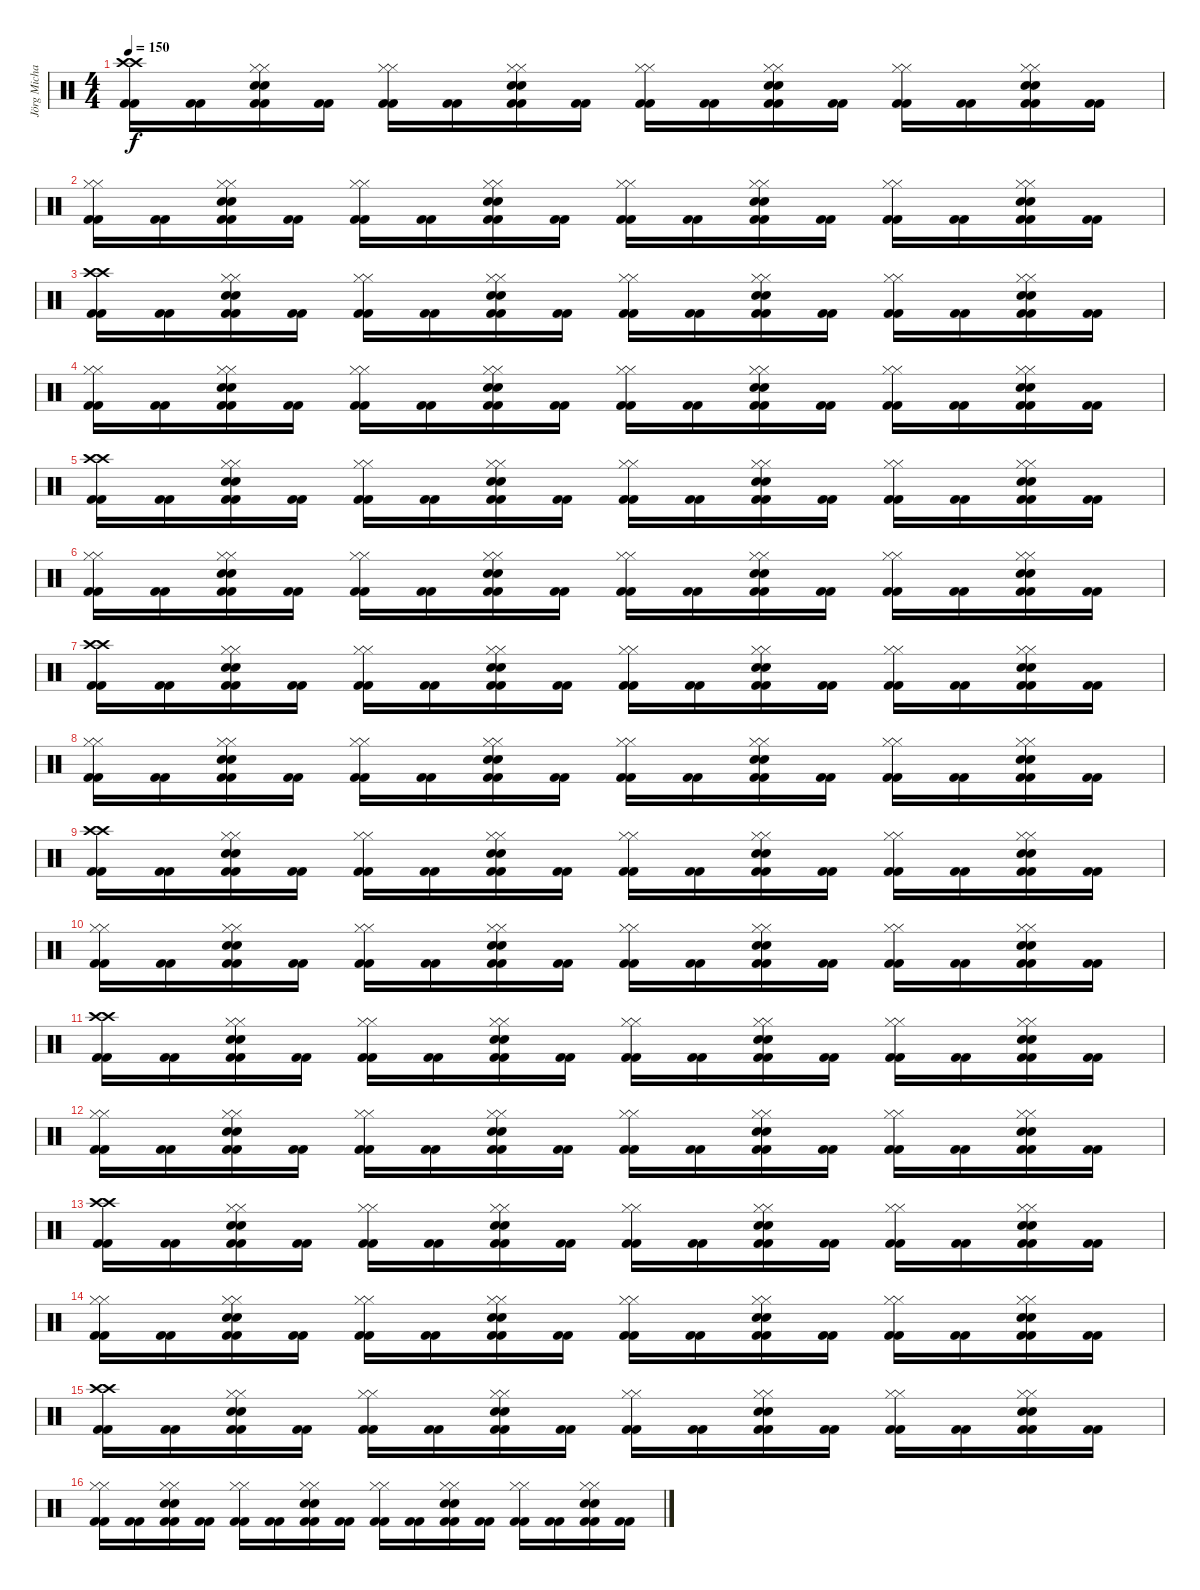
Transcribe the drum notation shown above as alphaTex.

\track ("Jörg Michael" "Jörg Micha") {instrument percussion}
\staff {score}
\articulation defaults
\ts (4 4)
\tempo 150
\clef neutral
\ks c
("Kick (hit) 2" "Crash high (hit)" "Kick (hit) 2" "Crash high (hit)").16{dy f} ("Kick (hit) 2" "Kick (hit) 2").16 ("Kick (hit) 2" "Snare (hit) 2" "Hi-Hat (closed)" "Kick (hit) 2" "Snare (hit) 2" "Hi-Hat (closed)").16 ("Kick (hit) 2" "Kick (hit) 2").16 ("Kick (hit) 2" "Hi-Hat (closed)" "Kick (hit) 2" "Hi-Hat (closed)").16 ("Kick (hit) 2" "Kick (hit) 2").16 ("Kick (hit) 2" "Snare (hit) 2" "Hi-Hat (closed)" "Kick (hit) 2" "Snare (hit) 2" "Hi-Hat (closed)").16 ("Kick (hit) 2" "Kick (hit) 2").16 ("Kick (hit) 2" "Hi-Hat (closed)" "Kick (hit) 2" "Hi-Hat (closed)").16 ("Kick (hit) 2" "Kick (hit) 2").16 ("Kick (hit) 2" "Snare (hit) 2" "Hi-Hat (closed)" "Kick (hit) 2" "Snare (hit) 2" "Hi-Hat (closed)").16 ("Kick (hit) 2" "Kick (hit) 2").16 ("Kick (hit) 2" "Hi-Hat (closed)" "Kick (hit) 2" "Hi-Hat (closed)").16 ("Kick (hit) 2" "Kick (hit) 2").16 ("Kick (hit) 2" "Snare (hit) 2" "Hi-Hat (closed)" "Kick (hit) 2" "Snare (hit) 2" "Hi-Hat (closed)").16 ("Kick (hit) 2" "Kick (hit) 2").16 |
("Kick (hit) 2" "Hi-Hat (closed)" "Kick (hit) 2" "Hi-Hat (closed)").16 ("Kick (hit) 2" "Kick (hit) 2").16 ("Kick (hit) 2" "Hi-Hat (closed)" "Snare (hit) 2" "Kick (hit) 2" "Hi-Hat (closed)" "Snare (hit) 2").16 ("Kick (hit) 2" "Kick (hit) 2").16 ("Kick (hit) 2" "Hi-Hat (closed)" "Kick (hit) 2" "Hi-Hat (closed)").16 ("Kick (hit) 2" "Kick (hit) 2").16 ("Kick (hit) 2" "Snare (hit) 2" "Hi-Hat (closed)" "Kick (hit) 2" "Snare (hit) 2" "Hi-Hat (closed)").16 ("Kick (hit) 2" "Kick (hit) 2").16 ("Kick (hit) 2" "Hi-Hat (closed)" "Kick (hit) 2" "Hi-Hat (closed)").16 ("Kick (hit) 2" "Kick (hit) 2").16 ("Kick (hit) 2" "Snare (hit) 2" "Hi-Hat (closed)" "Kick (hit) 2" "Snare (hit) 2" "Hi-Hat (closed)").16 ("Kick (hit) 2" "Kick (hit) 2").16 ("Kick (hit) 2" "Hi-Hat (closed)" "Kick (hit) 2" "Hi-Hat (closed)").16 ("Kick (hit) 2" "Kick (hit) 2").16 ("Kick (hit) 2" "Snare (hit) 2" "Hi-Hat (closed)" "Kick (hit) 2" "Snare (hit) 2" "Hi-Hat (closed)").16 ("Kick (hit) 2" "Kick (hit) 2").16 |
("Kick (hit) 2" "Crash high (hit)" "Kick (hit) 2" "Crash high (hit)").16 ("Kick (hit) 2" "Kick (hit) 2").16 ("Kick (hit) 2" "Snare (hit) 2" "Hi-Hat (closed)" "Kick (hit) 2" "Snare (hit) 2" "Hi-Hat (closed)").16 ("Kick (hit) 2" "Kick (hit) 2").16 ("Kick (hit) 2" "Hi-Hat (closed)" "Kick (hit) 2" "Hi-Hat (closed)").16 ("Kick (hit) 2" "Kick (hit) 2").16 ("Kick (hit) 2" "Hi-Hat (closed)" "Snare (hit) 2" "Kick (hit) 2" "Hi-Hat (closed)" "Snare (hit) 2").16 ("Kick (hit) 2" "Kick (hit) 2").16 ("Kick (hit) 2" "Hi-Hat (closed)" "Kick (hit) 2" "Hi-Hat (closed)").16 ("Kick (hit) 2" "Kick (hit) 2").16 ("Kick (hit) 2" "Hi-Hat (closed)" "Snare (hit) 2" "Kick (hit) 2" "Hi-Hat (closed)" "Snare (hit) 2").16 ("Kick (hit) 2" "Kick (hit) 2").16 ("Kick (hit) 2" "Hi-Hat (closed)" "Kick (hit) 2" "Hi-Hat (closed)").16 ("Kick (hit) 2" "Kick (hit) 2").16 ("Kick (hit) 2" "Hi-Hat (closed)" "Snare (hit) 2" "Kick (hit) 2" "Hi-Hat (closed)" "Snare (hit) 2").16 ("Kick (hit) 2" "Kick (hit) 2").16 |
("Kick (hit) 2" "Hi-Hat (closed)" "Kick (hit) 2" "Hi-Hat (closed)").16 ("Kick (hit) 2" "Kick (hit) 2").16 ("Kick (hit) 2" "Snare (hit) 2" "Hi-Hat (closed)" "Kick (hit) 2" "Snare (hit) 2" "Hi-Hat (closed)").16 ("Kick (hit) 2" "Kick (hit) 2").16 ("Kick (hit) 2" "Hi-Hat (closed)" "Kick (hit) 2" "Hi-Hat (closed)").16 ("Kick (hit) 2" "Kick (hit) 2").16 ("Kick (hit) 2" "Hi-Hat (closed)" "Snare (hit) 2" "Kick (hit) 2" "Hi-Hat (closed)" "Snare (hit) 2").16 ("Kick (hit) 2" "Kick (hit) 2").16 ("Kick (hit) 2" "Hi-Hat (closed)" "Kick (hit) 2" "Hi-Hat (closed)").16 ("Kick (hit) 2" "Kick (hit) 2").16 ("Kick (hit) 2" "Snare (hit) 2" "Hi-Hat (closed)" "Kick (hit) 2" "Snare (hit) 2" "Hi-Hat (closed)").16 ("Kick (hit) 2" "Kick (hit) 2").16 ("Kick (hit) 2" "Hi-Hat (closed)" "Kick (hit) 2" "Hi-Hat (closed)").16 ("Kick (hit) 2" "Kick (hit) 2").16 ("Kick (hit) 2" "Snare (hit) 2" "Hi-Hat (closed)" "Kick (hit) 2" "Snare (hit) 2" "Hi-Hat (closed)").16 ("Kick (hit) 2" "Kick (hit) 2").16 |
("Kick (hit) 2" "Crash high (hit)" "Kick (hit) 2" "Crash high (hit)").16 ("Kick (hit) 2" "Kick (hit) 2").16 ("Kick (hit) 2" "Snare (hit) 2" "Hi-Hat (closed)" "Kick (hit) 2" "Snare (hit) 2" "Hi-Hat (closed)").16 ("Kick (hit) 2" "Kick (hit) 2").16 ("Kick (hit) 2" "Hi-Hat (closed)" "Kick (hit) 2" "Hi-Hat (closed)").16 ("Kick (hit) 2" "Kick (hit) 2").16 ("Kick (hit) 2" "Snare (hit) 2" "Hi-Hat (closed)" "Kick (hit) 2" "Snare (hit) 2" "Hi-Hat (closed)").16 ("Kick (hit) 2" "Kick (hit) 2").16 ("Kick (hit) 2" "Hi-Hat (closed)" "Kick (hit) 2" "Hi-Hat (closed)").16 ("Kick (hit) 2" "Kick (hit) 2").16 ("Kick (hit) 2" "Snare (hit) 2" "Hi-Hat (closed)" "Kick (hit) 2" "Snare (hit) 2" "Hi-Hat (closed)").16 ("Kick (hit) 2" "Kick (hit) 2").16 ("Kick (hit) 2" "Hi-Hat (closed)" "Kick (hit) 2" "Hi-Hat (closed)").16 ("Kick (hit) 2" "Kick (hit) 2").16 ("Kick (hit) 2" "Snare (hit) 2" "Hi-Hat (closed)" "Kick (hit) 2" "Snare (hit) 2" "Hi-Hat (closed)").16 ("Kick (hit) 2" "Kick (hit) 2").16 |
("Kick (hit) 2" "Hi-Hat (closed)" "Kick (hit) 2" "Hi-Hat (closed)").16 ("Kick (hit) 2" "Kick (hit) 2").16 ("Kick (hit) 2" "Hi-Hat (closed)" "Snare (hit) 2" "Kick (hit) 2" "Hi-Hat (closed)" "Snare (hit) 2").16 ("Kick (hit) 2" "Kick (hit) 2").16 ("Kick (hit) 2" "Hi-Hat (closed)" "Kick (hit) 2" "Hi-Hat (closed)").16 ("Kick (hit) 2" "Kick (hit) 2").16 ("Kick (hit) 2" "Snare (hit) 2" "Hi-Hat (closed)" "Kick (hit) 2" "Snare (hit) 2" "Hi-Hat (closed)").16 ("Kick (hit) 2" "Kick (hit) 2").16 ("Kick (hit) 2" "Hi-Hat (closed)" "Kick (hit) 2" "Hi-Hat (closed)").16 ("Kick (hit) 2" "Kick (hit) 2").16 ("Kick (hit) 2" "Snare (hit) 2" "Hi-Hat (closed)" "Kick (hit) 2" "Snare (hit) 2" "Hi-Hat (closed)").16 ("Kick (hit) 2" "Kick (hit) 2").16 ("Kick (hit) 2" "Hi-Hat (closed)" "Kick (hit) 2" "Hi-Hat (closed)").16 ("Kick (hit) 2" "Kick (hit) 2").16 ("Kick (hit) 2" "Snare (hit) 2" "Hi-Hat (closed)" "Kick (hit) 2" "Snare (hit) 2" "Hi-Hat (closed)").16 ("Kick (hit) 2" "Kick (hit) 2").16 |
("Kick (hit) 2" "Crash high (hit)" "Kick (hit) 2" "Crash high (hit)").16 ("Kick (hit) 2" "Kick (hit) 2").16 ("Kick (hit) 2" "Snare (hit) 2" "Hi-Hat (closed)" "Kick (hit) 2" "Snare (hit) 2" "Hi-Hat (closed)").16 ("Kick (hit) 2" "Kick (hit) 2").16 ("Kick (hit) 2" "Hi-Hat (closed)" "Kick (hit) 2" "Hi-Hat (closed)").16 ("Kick (hit) 2" "Kick (hit) 2").16 ("Kick (hit) 2" "Hi-Hat (closed)" "Snare (hit) 2" "Kick (hit) 2" "Hi-Hat (closed)" "Snare (hit) 2").16 ("Kick (hit) 2" "Kick (hit) 2").16 ("Kick (hit) 2" "Hi-Hat (closed)" "Kick (hit) 2" "Hi-Hat (closed)").16 ("Kick (hit) 2" "Kick (hit) 2").16 ("Kick (hit) 2" "Hi-Hat (closed)" "Snare (hit) 2" "Kick (hit) 2" "Hi-Hat (closed)" "Snare (hit) 2").16 ("Kick (hit) 2" "Kick (hit) 2").16 ("Kick (hit) 2" "Hi-Hat (closed)" "Kick (hit) 2" "Hi-Hat (closed)").16 ("Kick (hit) 2" "Kick (hit) 2").16 ("Kick (hit) 2" "Hi-Hat (closed)" "Snare (hit) 2" "Kick (hit) 2" "Hi-Hat (closed)" "Snare (hit) 2").16 ("Kick (hit) 2" "Kick (hit) 2").16 |
("Kick (hit) 2" "Hi-Hat (closed)" "Kick (hit) 2" "Hi-Hat (closed)").16 ("Kick (hit) 2" "Kick (hit) 2").16 ("Kick (hit) 2" "Snare (hit) 2" "Hi-Hat (closed)" "Kick (hit) 2" "Snare (hit) 2" "Hi-Hat (closed)").16 ("Kick (hit) 2" "Kick (hit) 2").16 ("Kick (hit) 2" "Hi-Hat (closed)" "Kick (hit) 2" "Hi-Hat (closed)").16 ("Kick (hit) 2" "Kick (hit) 2").16 ("Kick (hit) 2" "Hi-Hat (closed)" "Snare (hit) 2" "Kick (hit) 2" "Hi-Hat (closed)" "Snare (hit) 2").16 ("Kick (hit) 2" "Kick (hit) 2").16 ("Kick (hit) 2" "Hi-Hat (closed)" "Kick (hit) 2" "Hi-Hat (closed)").16 ("Kick (hit) 2" "Kick (hit) 2").16 ("Kick (hit) 2" "Snare (hit) 2" "Hi-Hat (closed)" "Kick (hit) 2" "Snare (hit) 2" "Hi-Hat (closed)").16 ("Kick (hit) 2" "Kick (hit) 2").16 ("Kick (hit) 2" "Hi-Hat (closed)" "Kick (hit) 2" "Hi-Hat (closed)").16 ("Kick (hit) 2" "Kick (hit) 2").16 ("Kick (hit) 2" "Snare (hit) 2" "Hi-Hat (closed)" "Kick (hit) 2" "Snare (hit) 2" "Hi-Hat (closed)").16 ("Kick (hit) 2" "Kick (hit) 2").16 |
("Kick (hit) 2" "Crash high (hit)" "Kick (hit) 2" "Crash high (hit)").16 ("Kick (hit) 2" "Kick (hit) 2").16 ("Kick (hit) 2" "Snare (hit) 2" "Hi-Hat (closed)" "Kick (hit) 2" "Snare (hit) 2" "Hi-Hat (closed)").16 ("Kick (hit) 2" "Kick (hit) 2").16 ("Kick (hit) 2" "Hi-Hat (closed)" "Kick (hit) 2" "Hi-Hat (closed)").16 ("Kick (hit) 2" "Kick (hit) 2").16 ("Kick (hit) 2" "Snare (hit) 2" "Hi-Hat (closed)" "Kick (hit) 2" "Snare (hit) 2" "Hi-Hat (closed)").16 ("Kick (hit) 2" "Kick (hit) 2").16 ("Kick (hit) 2" "Hi-Hat (closed)" "Kick (hit) 2" "Hi-Hat (closed)").16 ("Kick (hit) 2" "Kick (hit) 2").16 ("Kick (hit) 2" "Snare (hit) 2" "Hi-Hat (closed)" "Kick (hit) 2" "Snare (hit) 2" "Hi-Hat (closed)").16 ("Kick (hit) 2" "Kick (hit) 2").16 ("Kick (hit) 2" "Hi-Hat (closed)" "Kick (hit) 2" "Hi-Hat (closed)").16 ("Kick (hit) 2" "Kick (hit) 2").16 ("Kick (hit) 2" "Snare (hit) 2" "Hi-Hat (closed)" "Kick (hit) 2" "Snare (hit) 2" "Hi-Hat (closed)").16 ("Kick (hit) 2" "Kick (hit) 2").16 |
("Kick (hit) 2" "Hi-Hat (closed)" "Kick (hit) 2" "Hi-Hat (closed)").16 ("Kick (hit) 2" "Kick (hit) 2").16 ("Kick (hit) 2" "Hi-Hat (closed)" "Snare (hit) 2" "Kick (hit) 2" "Hi-Hat (closed)" "Snare (hit) 2").16 ("Kick (hit) 2" "Kick (hit) 2").16 ("Kick (hit) 2" "Hi-Hat (closed)" "Kick (hit) 2" "Hi-Hat (closed)").16 ("Kick (hit) 2" "Kick (hit) 2").16 ("Kick (hit) 2" "Snare (hit) 2" "Hi-Hat (closed)" "Kick (hit) 2" "Snare (hit) 2" "Hi-Hat (closed)").16 ("Kick (hit) 2" "Kick (hit) 2").16 ("Kick (hit) 2" "Hi-Hat (closed)" "Kick (hit) 2" "Hi-Hat (closed)").16 ("Kick (hit) 2" "Kick (hit) 2").16 ("Kick (hit) 2" "Snare (hit) 2" "Hi-Hat (closed)" "Kick (hit) 2" "Snare (hit) 2" "Hi-Hat (closed)").16 ("Kick (hit) 2" "Kick (hit) 2").16 ("Kick (hit) 2" "Hi-Hat (closed)" "Kick (hit) 2" "Hi-Hat (closed)").16 ("Kick (hit) 2" "Kick (hit) 2").16 ("Kick (hit) 2" "Snare (hit) 2" "Hi-Hat (closed)" "Kick (hit) 2" "Snare (hit) 2" "Hi-Hat (closed)").16 ("Kick (hit) 2" "Kick (hit) 2").16 |
("Kick (hit) 2" "Crash high (hit)" "Kick (hit) 2" "Crash high (hit)").16 ("Kick (hit) 2" "Kick (hit) 2").16 ("Kick (hit) 2" "Snare (hit) 2" "Hi-Hat (closed)" "Kick (hit) 2" "Snare (hit) 2" "Hi-Hat (closed)").16 ("Kick (hit) 2" "Kick (hit) 2").16 ("Kick (hit) 2" "Hi-Hat (closed)" "Kick (hit) 2" "Hi-Hat (closed)").16 ("Kick (hit) 2" "Kick (hit) 2").16 ("Kick (hit) 2" "Hi-Hat (closed)" "Snare (hit) 2" "Kick (hit) 2" "Hi-Hat (closed)" "Snare (hit) 2").16 ("Kick (hit) 2" "Kick (hit) 2").16 ("Kick (hit) 2" "Hi-Hat (closed)" "Kick (hit) 2" "Hi-Hat (closed)").16 ("Kick (hit) 2" "Kick (hit) 2").16 ("Kick (hit) 2" "Hi-Hat (closed)" "Snare (hit) 2" "Kick (hit) 2" "Hi-Hat (closed)" "Snare (hit) 2").16 ("Kick (hit) 2" "Kick (hit) 2").16 ("Kick (hit) 2" "Hi-Hat (closed)" "Kick (hit) 2" "Hi-Hat (closed)").16 ("Kick (hit) 2" "Kick (hit) 2").16 ("Kick (hit) 2" "Hi-Hat (closed)" "Snare (hit) 2" "Kick (hit) 2" "Hi-Hat (closed)" "Snare (hit) 2").16 ("Kick (hit) 2" "Kick (hit) 2").16 |
("Kick (hit) 2" "Hi-Hat (closed)" "Kick (hit) 2" "Hi-Hat (closed)").16 ("Kick (hit) 2" "Kick (hit) 2").16 ("Kick (hit) 2" "Snare (hit) 2" "Hi-Hat (closed)" "Kick (hit) 2" "Snare (hit) 2" "Hi-Hat (closed)").16 ("Kick (hit) 2" "Kick (hit) 2").16 ("Kick (hit) 2" "Hi-Hat (closed)" "Kick (hit) 2" "Hi-Hat (closed)").16 ("Kick (hit) 2" "Kick (hit) 2").16 ("Kick (hit) 2" "Hi-Hat (closed)" "Snare (hit) 2" "Kick (hit) 2" "Hi-Hat (closed)" "Snare (hit) 2").16 ("Kick (hit) 2" "Kick (hit) 2").16 ("Kick (hit) 2" "Hi-Hat (closed)" "Kick (hit) 2" "Hi-Hat (closed)").16 ("Kick (hit) 2" "Kick (hit) 2").16 ("Kick (hit) 2" "Snare (hit) 2" "Hi-Hat (closed)" "Kick (hit) 2" "Snare (hit) 2" "Hi-Hat (closed)").16 ("Kick (hit) 2" "Kick (hit) 2").16 ("Kick (hit) 2" "Hi-Hat (closed)" "Kick (hit) 2" "Hi-Hat (closed)").16 ("Kick (hit) 2" "Kick (hit) 2").16 ("Kick (hit) 2" "Snare (hit) 2" "Hi-Hat (closed)" "Kick (hit) 2" "Snare (hit) 2" "Hi-Hat (closed)").16 ("Kick (hit) 2" "Kick (hit) 2").16 |
("Kick (hit) 2" "Crash high (hit)" "Kick (hit) 2" "Crash high (hit)").16 ("Kick (hit) 2" "Kick (hit) 2").16 ("Kick (hit) 2" "Snare (hit) 2" "Hi-Hat (closed)" "Kick (hit) 2" "Snare (hit) 2" "Hi-Hat (closed)").16 ("Kick (hit) 2" "Kick (hit) 2").16 ("Kick (hit) 2" "Hi-Hat (closed)" "Kick (hit) 2" "Hi-Hat (closed)").16 ("Kick (hit) 2" "Kick (hit) 2").16 ("Kick (hit) 2" "Snare (hit) 2" "Hi-Hat (closed)" "Kick (hit) 2" "Snare (hit) 2" "Hi-Hat (closed)").16 ("Kick (hit) 2" "Kick (hit) 2").16 ("Kick (hit) 2" "Hi-Hat (closed)" "Kick (hit) 2" "Hi-Hat (closed)").16 ("Kick (hit) 2" "Kick (hit) 2").16 ("Kick (hit) 2" "Snare (hit) 2" "Hi-Hat (closed)" "Kick (hit) 2" "Snare (hit) 2" "Hi-Hat (closed)").16 ("Kick (hit) 2" "Kick (hit) 2").16 ("Kick (hit) 2" "Hi-Hat (closed)" "Kick (hit) 2" "Hi-Hat (closed)").16 ("Kick (hit) 2" "Kick (hit) 2").16 ("Kick (hit) 2" "Snare (hit) 2" "Hi-Hat (closed)" "Kick (hit) 2" "Snare (hit) 2" "Hi-Hat (closed)").16 ("Kick (hit) 2" "Kick (hit) 2").16 |
("Kick (hit) 2" "Hi-Hat (closed)" "Kick (hit) 2" "Hi-Hat (closed)").16 ("Kick (hit) 2" "Kick (hit) 2").16 ("Kick (hit) 2" "Hi-Hat (closed)" "Snare (hit) 2" "Kick (hit) 2" "Hi-Hat (closed)" "Snare (hit) 2").16 ("Kick (hit) 2" "Kick (hit) 2").16 ("Kick (hit) 2" "Hi-Hat (closed)" "Kick (hit) 2" "Hi-Hat (closed)").16 ("Kick (hit) 2" "Kick (hit) 2").16 ("Kick (hit) 2" "Snare (hit) 2" "Hi-Hat (closed)" "Kick (hit) 2" "Snare (hit) 2" "Hi-Hat (closed)").16 ("Kick (hit) 2" "Kick (hit) 2").16 ("Kick (hit) 2" "Hi-Hat (closed)" "Kick (hit) 2" "Hi-Hat (closed)").16 ("Kick (hit) 2" "Kick (hit) 2").16 ("Kick (hit) 2" "Snare (hit) 2" "Hi-Hat (closed)" "Kick (hit) 2" "Snare (hit) 2" "Hi-Hat (closed)").16 ("Kick (hit) 2" "Kick (hit) 2").16 ("Kick (hit) 2" "Hi-Hat (closed)" "Kick (hit) 2" "Hi-Hat (closed)").16 ("Kick (hit) 2" "Kick (hit) 2").16 ("Kick (hit) 2" "Snare (hit) 2" "Hi-Hat (closed)" "Kick (hit) 2" "Snare (hit) 2" "Hi-Hat (closed)").16 ("Kick (hit) 2" "Kick (hit) 2").16 |
("Kick (hit) 2" "Crash high (hit)" "Kick (hit) 2" "Crash high (hit)").16 ("Kick (hit) 2" "Kick (hit) 2").16 ("Kick (hit) 2" "Snare (hit) 2" "Hi-Hat (closed)" "Kick (hit) 2" "Snare (hit) 2" "Hi-Hat (closed)").16 ("Kick (hit) 2" "Kick (hit) 2").16 ("Kick (hit) 2" "Hi-Hat (closed)" "Kick (hit) 2" "Hi-Hat (closed)").16 ("Kick (hit) 2" "Kick (hit) 2").16 ("Kick (hit) 2" "Hi-Hat (closed)" "Snare (hit) 2" "Kick (hit) 2" "Hi-Hat (closed)" "Snare (hit) 2").16 ("Kick (hit) 2" "Kick (hit) 2").16 ("Kick (hit) 2" "Hi-Hat (closed)" "Kick (hit) 2" "Hi-Hat (closed)").16 ("Kick (hit) 2" "Kick (hit) 2").16 ("Kick (hit) 2" "Hi-Hat (closed)" "Snare (hit) 2" "Kick (hit) 2" "Hi-Hat (closed)" "Snare (hit) 2").16 ("Kick (hit) 2" "Kick (hit) 2").16 ("Kick (hit) 2" "Hi-Hat (closed)" "Kick (hit) 2" "Hi-Hat (closed)").16 ("Kick (hit) 2" "Kick (hit) 2").16 ("Kick (hit) 2" "Hi-Hat (closed)" "Snare (hit) 2" "Kick (hit) 2" "Hi-Hat (closed)" "Snare (hit) 2").16 ("Kick (hit) 2" "Kick (hit) 2").16 |
("Kick (hit) 2" "Hi-Hat (closed)" "Kick (hit) 2" "Hi-Hat (closed)").16 ("Kick (hit) 2" "Kick (hit) 2").16 ("Kick (hit) 2" "Snare (hit) 2" "Hi-Hat (closed)" "Kick (hit) 2" "Snare (hit) 2" "Hi-Hat (closed)").16 ("Kick (hit) 2" "Kick (hit) 2").16 ("Kick (hit) 2" "Hi-Hat (closed)" "Kick (hit) 2" "Hi-Hat (closed)").16 ("Kick (hit) 2" "Kick (hit) 2").16 ("Kick (hit) 2" "Hi-Hat (closed)" "Snare (hit) 2" "Kick (hit) 2" "Hi-Hat (closed)" "Snare (hit) 2").16 ("Kick (hit) 2" "Kick (hit) 2").16 ("Kick (hit) 2" "Hi-Hat (closed)" "Kick (hit) 2" "Hi-Hat (closed)").16 ("Kick (hit) 2" "Kick (hit) 2").16 ("Kick (hit) 2" "Snare (hit) 2" "Hi-Hat (closed)" "Kick (hit) 2" "Snare (hit) 2" "Hi-Hat (closed)").16 ("Kick (hit) 2" "Kick (hit) 2").16 ("Kick (hit) 2" "Hi-Hat (closed)" "Kick (hit) 2" "Hi-Hat (closed)").16 ("Kick (hit) 2" "Kick (hit) 2").16 ("Kick (hit) 2" "Snare (hit) 2" "Hi-Hat (closed)" "Kick (hit) 2" "Snare (hit) 2" "Hi-Hat (closed)").16 ("Kick (hit) 2" "Kick (hit) 2").16
